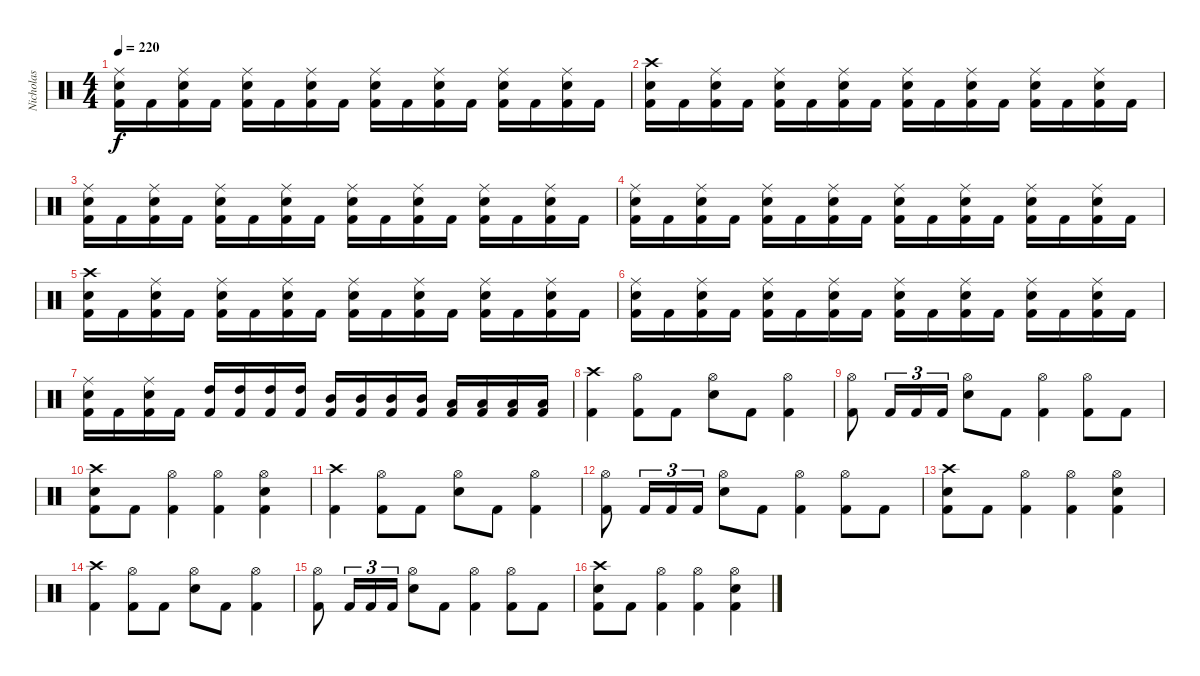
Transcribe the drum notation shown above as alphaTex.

\track ("Nicholas" "Nicholas") {instrument percussion}
\staff {score}
\articulation defaults
\ts (4 4)
\tempo 220
\clef neutral
\ks c
("Kick (hit) 2" "Snare (hit) 2" "Ride (middle)").16{dy f} "Kick (hit) 2".16 ("Kick (hit) 2" "Snare (hit) 2" "Ride (middle)").16 "Kick (hit) 2".16 ("Kick (hit) 2" "Snare (hit) 2" "Ride (middle)").16 "Kick (hit) 2".16 ("Kick (hit) 2" "Snare (hit) 2" "Ride (middle)").16 "Kick (hit) 2".16 ("Kick (hit) 2" "Snare (hit) 2" "Ride (middle)").16 "Kick (hit) 2".16 ("Kick (hit) 2" "Snare (hit) 2" "Ride (middle)").16 "Kick (hit) 2".16 ("Kick (hit) 2" "Snare (hit) 2" "Ride (middle)").16 "Kick (hit) 2".16 ("Kick (hit) 2" "Snare (hit) 2" "Ride (middle)").16 "Kick (hit) 2".16 |
("Kick (hit) 2" "Snare (hit) 2" "Crash high (hit)").16 "Kick (hit) 2".16 ("Kick (hit) 2" "Snare (hit) 2" "Ride (middle)").16 "Kick (hit) 2".16 ("Kick (hit) 2" "Snare (hit) 2" "Ride (middle)").16 "Kick (hit) 2".16 ("Kick (hit) 2" "Snare (hit) 2" "Ride (middle)").16 "Kick (hit) 2".16 ("Kick (hit) 2" "Snare (hit) 2" "Ride (middle)").16 "Kick (hit) 2".16 ("Kick (hit) 2" "Snare (hit) 2" "Ride (middle)").16 "Kick (hit) 2".16 ("Kick (hit) 2" "Snare (hit) 2" "Ride (middle)").16 "Kick (hit) 2".16 ("Kick (hit) 2" "Snare (hit) 2" "Ride (middle)").16 "Kick (hit) 2".16 |
("Kick (hit) 2" "Snare (hit) 2" "Ride (middle)").16 "Kick (hit) 2".16 ("Kick (hit) 2" "Snare (hit) 2" "Ride (middle)").16 "Kick (hit) 2".16 ("Kick (hit) 2" "Snare (hit) 2" "Ride (middle)").16 "Kick (hit) 2".16 ("Kick (hit) 2" "Snare (hit) 2" "Ride (middle)").16 "Kick (hit) 2".16 ("Kick (hit) 2" "Snare (hit) 2" "Ride (middle)").16 "Kick (hit) 2".16 ("Kick (hit) 2" "Snare (hit) 2" "Ride (middle)").16 "Kick (hit) 2".16 ("Kick (hit) 2" "Snare (hit) 2" "Ride (middle)").16 "Kick (hit) 2".16 ("Kick (hit) 2" "Snare (hit) 2" "Ride (middle)").16 "Kick (hit) 2".16 |
("Kick (hit) 2" "Snare (hit) 2" "Ride (middle)").16 "Kick (hit) 2".16 ("Kick (hit) 2" "Snare (hit) 2" "Ride (middle)").16 "Kick (hit) 2".16 ("Kick (hit) 2" "Snare (hit) 2" "Ride (middle)").16 "Kick (hit) 2".16 ("Kick (hit) 2" "Snare (hit) 2" "Ride (middle)").16 "Kick (hit) 2".16 ("Kick (hit) 2" "Snare (hit) 2" "Ride (middle)").16 "Kick (hit) 2".16 ("Kick (hit) 2" "Snare (hit) 2" "Ride (middle)").16 "Kick (hit) 2".16 ("Kick (hit) 2" "Snare (hit) 2" "Ride (middle)").16 "Kick (hit) 2".16 ("Kick (hit) 2" "Snare (hit) 2" "Ride (middle)").16 "Kick (hit) 2".16 |
("Kick (hit) 2" "Snare (hit) 2" "Crash high (hit)").16 "Kick (hit) 2".16 ("Kick (hit) 2" "Snare (hit) 2" "Ride (middle)").16 "Kick (hit) 2".16 ("Kick (hit) 2" "Snare (hit) 2" "Ride (middle)").16 "Kick (hit) 2".16 ("Kick (hit) 2" "Snare (hit) 2" "Ride (middle)").16 "Kick (hit) 2".16 ("Kick (hit) 2" "Snare (hit) 2" "Ride (middle)").16 "Kick (hit) 2".16 ("Kick (hit) 2" "Snare (hit) 2" "Ride (middle)").16 "Kick (hit) 2".16 ("Kick (hit) 2" "Snare (hit) 2" "Ride (middle)").16 "Kick (hit) 2".16 ("Kick (hit) 2" "Snare (hit) 2" "Ride (middle)").16 "Kick (hit) 2".16 |
("Kick (hit) 2" "Snare (hit) 2" "Ride (middle)").16 "Kick (hit) 2".16 ("Kick (hit) 2" "Snare (hit) 2" "Ride (middle)").16 "Kick (hit) 2".16 ("Kick (hit) 2" "Snare (hit) 2" "Ride (middle)").16 "Kick (hit) 2".16 ("Kick (hit) 2" "Snare (hit) 2" "Ride (middle)").16 "Kick (hit) 2".16 ("Kick (hit) 2" "Snare (hit) 2" "Ride (middle)").16 "Kick (hit) 2".16 ("Kick (hit) 2" "Snare (hit) 2" "Ride (middle)").16 "Kick (hit) 2".16 ("Kick (hit) 2" "Snare (hit) 2" "Ride (middle)").16 "Kick (hit) 2".16 ("Kick (hit) 2" "Snare (hit) 2" "Ride (middle)").16 "Kick (hit) 2".16 |
("Kick (hit) 2" "Snare (hit) 2" "Ride (middle)").16 "Kick (hit) 2".16 ("Kick (hit) 2" "Snare (hit) 2" "Ride (middle)").16 "Kick (hit) 2".16 ("Kick (hit) 2" "High Tom (hit)").16 ("Kick (hit) 2" "High Tom (hit)").16 ("Kick (hit) 2" "High Tom (hit)").16 ("Kick (hit) 2" "High Tom (hit)").16 ("Kick (hit) 2" "Mid Tom (hit)").16 ("Kick (hit) 2" "Mid Tom (hit)").16 ("Kick (hit) 2" "Mid Tom (hit)").16 ("Kick (hit) 2" "Mid Tom (hit)").16 ("Kick (hit) 2" "Low Tom (hit)").16 ("Kick (hit) 2" "Low Tom (hit)").16 ("Kick (hit) 2" "Low Tom (hit)").16 ("Kick (hit) 2" "Low Tom (hit)").16 |
("Kick (hit) 2" "Crash high (hit)").4 ("Kick (hit) 2" "Hi-Hat (open)").8 "Kick (hit) 2".8 ("Snare (hit) 2" "Hi-Hat (open)").8 "Kick (hit) 2".8 ("Kick (hit) 2" "Hi-Hat (open)").4 |
("Kick (hit) 2" "Hi-Hat (open)").8 "Kick (hit) 2".16{tu (3 2)} "Kick (hit) 2".16{tu (3 2)} "Kick (hit) 2".16{tu (3 2)} ("Snare (hit) 2" "Hi-Hat (open)").8 "Kick (hit) 2".8 ("Kick (hit) 2" "Hi-Hat (open)").4 ("Kick (hit) 2" "Hi-Hat (open)").8 "Kick (hit) 2".8 |
("Kick (hit) 2" "Snare (hit) 2" "Crash high (hit)").8 "Kick (hit) 2".8 ("Kick (hit) 2" "Hi-Hat (open)").4 ("Kick (hit) 2" "Hi-Hat (open)").4 ("Kick (hit) 2" "Snare (hit) 2" "Hi-Hat (open)").4 |
("Kick (hit) 2" "Crash high (hit)").4 ("Kick (hit) 2" "Hi-Hat (open)").8 "Kick (hit) 2".8 ("Snare (hit) 2" "Hi-Hat (open)").8 "Kick (hit) 2".8 ("Kick (hit) 2" "Hi-Hat (open)").4 |
("Kick (hit) 2" "Hi-Hat (open)").8 "Kick (hit) 2".16{tu (3 2)} "Kick (hit) 2".16{tu (3 2)} "Kick (hit) 2".16{tu (3 2)} ("Snare (hit) 2" "Hi-Hat (open)").8 "Kick (hit) 2".8 ("Kick (hit) 2" "Hi-Hat (open)").4 ("Kick (hit) 2" "Hi-Hat (open)").8 "Kick (hit) 2".8 |
("Kick (hit) 2" "Snare (hit) 2" "Crash high (hit)").8 "Kick (hit) 2".8 ("Kick (hit) 2" "Hi-Hat (open)").4 ("Kick (hit) 2" "Hi-Hat (open)").4 ("Kick (hit) 2" "Snare (hit) 2" "Hi-Hat (open)").4 |
("Kick (hit) 2" "Crash high (hit)").4 ("Kick (hit) 2" "Hi-Hat (open)").8 "Kick (hit) 2".8 ("Snare (hit) 2" "Hi-Hat (open)").8 "Kick (hit) 2".8 ("Kick (hit) 2" "Hi-Hat (open)").4 |
("Kick (hit) 2" "Hi-Hat (open)").8 "Kick (hit) 2".16{tu (3 2)} "Kick (hit) 2".16{tu (3 2)} "Kick (hit) 2".16{tu (3 2)} ("Snare (hit) 2" "Hi-Hat (open)").8 "Kick (hit) 2".8 ("Kick (hit) 2" "Hi-Hat (open)").4 ("Kick (hit) 2" "Hi-Hat (open)").8 "Kick (hit) 2".8 |
("Kick (hit) 2" "Snare (hit) 2" "Crash high (hit)").8 "Kick (hit) 2".8 ("Kick (hit) 2" "Hi-Hat (open)").4 ("Kick (hit) 2" "Hi-Hat (open)").4 ("Kick (hit) 2" "Snare (hit) 2" "Hi-Hat (open)").4
